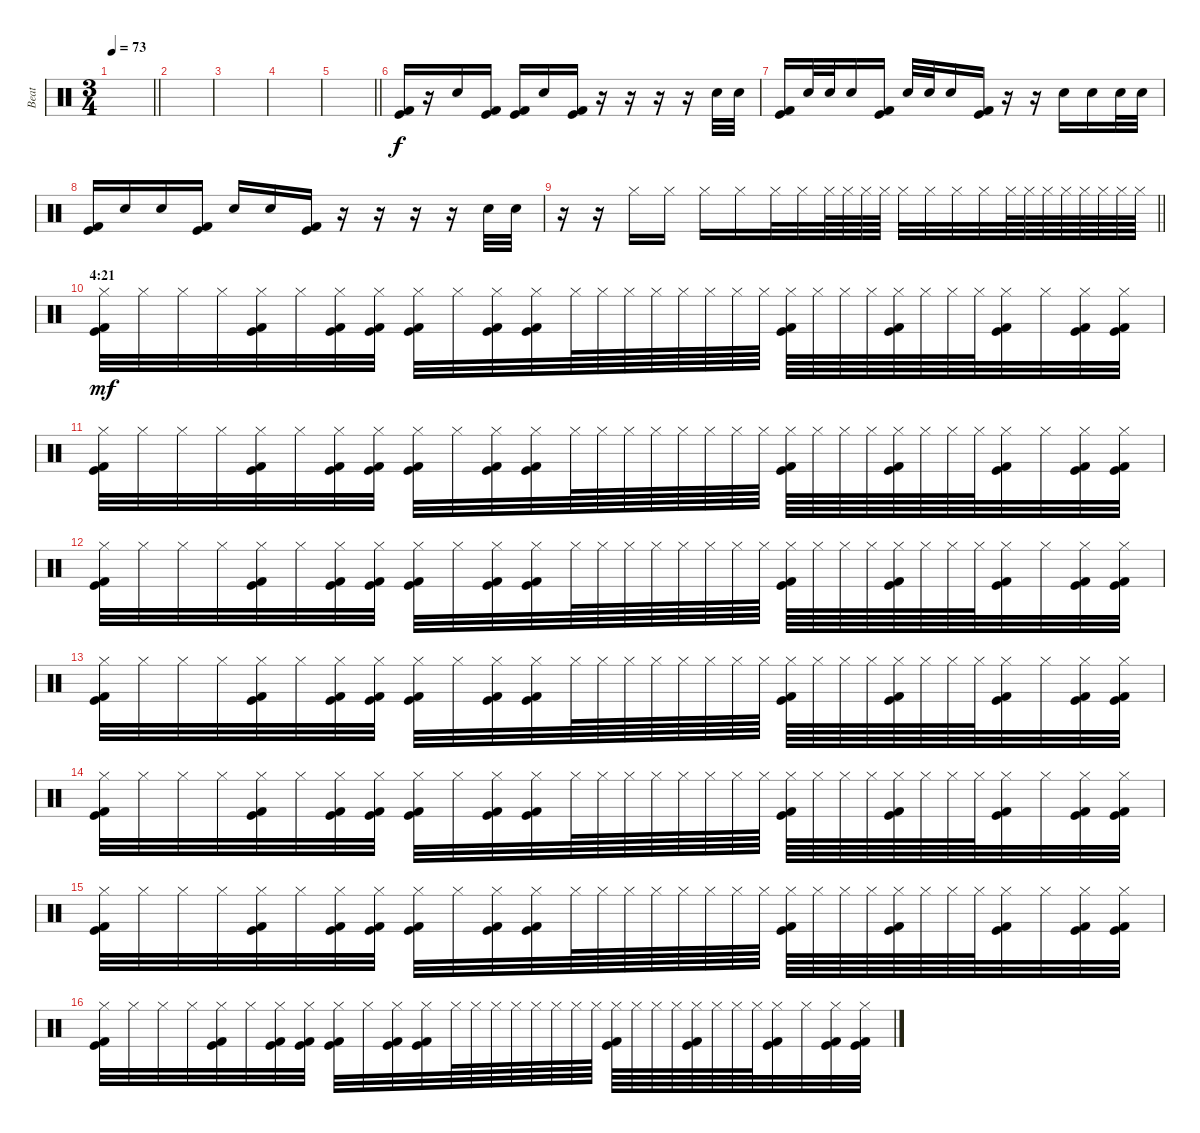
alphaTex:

\track ("Beat" "Beat") {instrument percussion}
\staff {score}
\articulation defaults
\ts (3 4)
\tempo 73
\clef neutral
\barLineRight lightlight
\ks c
|
|
|
|
\barLineRight lightlight
|
("Kick (hit) 2" "Kick (hit)").16 r.16 "Snare (hit) 2".16 ("Kick (hit) 2" "Kick (hit)").16 ("Kick (hit) 2" "Kick (hit)").16 "Snare (hit) 2".16 ("Kick (hit) 2" "Kick (hit)").16 r.16 r.16 r.16 r.16 "Snare (hit) 2".32 "Snare (hit) 2".32 |
("Kick (hit) 2" "Kick (hit)").16 "Snare (hit) 2".32 "Snare (hit) 2".32 "Snare (hit) 2".16 ("Kick (hit) 2" "Kick (hit)").16 "Snare (hit) 2".32 "Snare (hit) 2".32 "Snare (hit) 2".16 ("Kick (hit) 2" "Kick (hit)").16 r.16 r.16 "Snare (hit) 2".16 "Snare (hit) 2".16 "Snare (hit) 2".32 "Snare (hit) 2".32 |
("Kick (hit) 2" "Kick (hit)").16 "Snare (hit) 2".16 "Snare (hit) 2".16 ("Kick (hit) 2" "Kick (hit)").16 "Snare (hit) 2".16 "Snare (hit) 2".16 ("Kick (hit) 2" "Kick (hit)").16 r.16 r.16 r.16 r.16 "Snare (hit) 2".32 "Snare (hit) 2".32 |
\barLineRight lightlight
r.16 r.16 "Hi-Hat (closed)".16 "Hi-Hat (closed)".16 "Hi-Hat (closed)".16 "Hi-Hat (closed)".16 "Hi-Hat (closed)".32 "Hi-Hat (closed)".32 "Hi-Hat (closed)".64 "Hi-Hat (closed)".64 "Hi-Hat (closed)".64 "Hi-Hat (closed)".64 "Hi-Hat (closed)".32 "Hi-Hat (closed)".32 "Hi-Hat (closed)".32 "Hi-Hat (closed)".32 "Hi-Hat (closed)".64 "Hi-Hat (closed)".64 "Hi-Hat (closed)".64 "Hi-Hat (closed)".64 "Hi-Hat (closed)".64 "Hi-Hat (closed)".64 "Hi-Hat (closed)".64 "Hi-Hat (closed)".64 |
\section ("" "4:21")
("Hi-Hat (closed)" "Kick (hit)" "Kick (hit) 2").32{dy mf} "Hi-Hat (closed)".32 "Hi-Hat (closed)".32 "Hi-Hat (closed)".32 ("Hi-Hat (closed)" "Kick (hit)" "Kick (hit) 2").32 "Hi-Hat (closed)".32 ("Hi-Hat (closed)" "Kick (hit)" "Kick (hit) 2").32 ("Hi-Hat (closed)" "Kick (hit)" "Kick (hit) 2").32 ("Hi-Hat (closed)" "Kick (hit)" "Kick (hit) 2").32 "Hi-Hat (closed)".32 ("Hi-Hat (closed)" "Kick (hit)" "Kick (hit) 2").32 ("Hi-Hat (closed)" "Kick (hit)" "Kick (hit) 2").32 "Hi-Hat (closed)".64 "Hi-Hat (closed)".64 "Hi-Hat (closed)".64 "Hi-Hat (closed)".64 "Hi-Hat (closed)".64 "Hi-Hat (closed)".64 "Hi-Hat (closed)".64 "Hi-Hat (closed)".64 ("Hi-Hat (closed)" "Kick (hit)" "Kick (hit) 2").64 "Hi-Hat (closed)".64 "Hi-Hat (closed)".64 "Hi-Hat (closed)".64 ("Hi-Hat (closed)" "Kick (hit)" "Kick (hit) 2").64 "Hi-Hat (closed)".64 "Hi-Hat (closed)".64 "Hi-Hat (closed)".64 ("Hi-Hat (closed)" "Kick (hit)" "Kick (hit) 2").32 "Hi-Hat (closed)".32 ("Hi-Hat (closed)" "Kick (hit)" "Kick (hit) 2").32 ("Hi-Hat (closed)" "Kick (hit)" "Kick (hit) 2").32 |
("Hi-Hat (closed)" "Kick (hit)" "Kick (hit) 2").32 "Hi-Hat (closed)".32 "Hi-Hat (closed)".32 "Hi-Hat (closed)".32 ("Hi-Hat (closed)" "Kick (hit)" "Kick (hit) 2").32 "Hi-Hat (closed)".32 ("Hi-Hat (closed)" "Kick (hit)" "Kick (hit) 2").32 ("Hi-Hat (closed)" "Kick (hit)" "Kick (hit) 2").32 ("Hi-Hat (closed)" "Kick (hit)" "Kick (hit) 2").32 "Hi-Hat (closed)".32 ("Hi-Hat (closed)" "Kick (hit)" "Kick (hit) 2").32 ("Hi-Hat (closed)" "Kick (hit)" "Kick (hit) 2").32 "Hi-Hat (closed)".64 "Hi-Hat (closed)".64 "Hi-Hat (closed)".64 "Hi-Hat (closed)".64 "Hi-Hat (closed)".64 "Hi-Hat (closed)".64 "Hi-Hat (closed)".64 "Hi-Hat (closed)".64 ("Hi-Hat (closed)" "Kick (hit)" "Kick (hit) 2").64 "Hi-Hat (closed)".64 "Hi-Hat (closed)".64 "Hi-Hat (closed)".64 ("Hi-Hat (closed)" "Kick (hit)" "Kick (hit) 2").64 "Hi-Hat (closed)".64 "Hi-Hat (closed)".64 "Hi-Hat (closed)".64 ("Hi-Hat (closed)" "Kick (hit)" "Kick (hit) 2").32 "Hi-Hat (closed)".32 ("Hi-Hat (closed)" "Kick (hit)" "Kick (hit) 2").32 ("Hi-Hat (closed)" "Kick (hit)" "Kick (hit) 2").32 |
("Hi-Hat (closed)" "Kick (hit)" "Kick (hit) 2").32 "Hi-Hat (closed)".32 "Hi-Hat (closed)".32 "Hi-Hat (closed)".32 ("Hi-Hat (closed)" "Kick (hit)" "Kick (hit) 2").32 "Hi-Hat (closed)".32 ("Hi-Hat (closed)" "Kick (hit)" "Kick (hit) 2").32 ("Hi-Hat (closed)" "Kick (hit)" "Kick (hit) 2").32 ("Hi-Hat (closed)" "Kick (hit)" "Kick (hit) 2").32 "Hi-Hat (closed)".32 ("Hi-Hat (closed)" "Kick (hit)" "Kick (hit) 2").32 ("Hi-Hat (closed)" "Kick (hit)" "Kick (hit) 2").32 "Hi-Hat (closed)".64 "Hi-Hat (closed)".64 "Hi-Hat (closed)".64 "Hi-Hat (closed)".64 "Hi-Hat (closed)".64 "Hi-Hat (closed)".64 "Hi-Hat (closed)".64 "Hi-Hat (closed)".64 ("Hi-Hat (closed)" "Kick (hit)" "Kick (hit) 2").64 "Hi-Hat (closed)".64 "Hi-Hat (closed)".64 "Hi-Hat (closed)".64 ("Hi-Hat (closed)" "Kick (hit)" "Kick (hit) 2").64 "Hi-Hat (closed)".64 "Hi-Hat (closed)".64 "Hi-Hat (closed)".64 ("Hi-Hat (closed)" "Kick (hit)" "Kick (hit) 2").32 "Hi-Hat (closed)".32 ("Hi-Hat (closed)" "Kick (hit)" "Kick (hit) 2").32 ("Hi-Hat (closed)" "Kick (hit)" "Kick (hit) 2").32 |
("Hi-Hat (closed)" "Kick (hit)" "Kick (hit) 2").32 "Hi-Hat (closed)".32 "Hi-Hat (closed)".32 "Hi-Hat (closed)".32 ("Hi-Hat (closed)" "Kick (hit)" "Kick (hit) 2").32 "Hi-Hat (closed)".32 ("Hi-Hat (closed)" "Kick (hit)" "Kick (hit) 2").32 ("Hi-Hat (closed)" "Kick (hit)" "Kick (hit) 2").32 ("Hi-Hat (closed)" "Kick (hit)" "Kick (hit) 2").32 "Hi-Hat (closed)".32 ("Hi-Hat (closed)" "Kick (hit)" "Kick (hit) 2").32 ("Hi-Hat (closed)" "Kick (hit)" "Kick (hit) 2").32 "Hi-Hat (closed)".64 "Hi-Hat (closed)".64 "Hi-Hat (closed)".64 "Hi-Hat (closed)".64 "Hi-Hat (closed)".64 "Hi-Hat (closed)".64 "Hi-Hat (closed)".64 "Hi-Hat (closed)".64 ("Hi-Hat (closed)" "Kick (hit)" "Kick (hit) 2").64 "Hi-Hat (closed)".64 "Hi-Hat (closed)".64 "Hi-Hat (closed)".64 ("Hi-Hat (closed)" "Kick (hit)" "Kick (hit) 2").64 "Hi-Hat (closed)".64 "Hi-Hat (closed)".64 "Hi-Hat (closed)".64 ("Hi-Hat (closed)" "Kick (hit)" "Kick (hit) 2").32 "Hi-Hat (closed)".32 ("Hi-Hat (closed)" "Kick (hit)" "Kick (hit) 2").32 ("Hi-Hat (closed)" "Kick (hit)" "Kick (hit) 2").32 |
("Hi-Hat (closed)" "Kick (hit)" "Kick (hit) 2").32 "Hi-Hat (closed)".32 "Hi-Hat (closed)".32 "Hi-Hat (closed)".32 ("Hi-Hat (closed)" "Kick (hit)" "Kick (hit) 2").32 "Hi-Hat (closed)".32 ("Hi-Hat (closed)" "Kick (hit)" "Kick (hit) 2").32 ("Hi-Hat (closed)" "Kick (hit)" "Kick (hit) 2").32 ("Hi-Hat (closed)" "Kick (hit)" "Kick (hit) 2").32 "Hi-Hat (closed)".32 ("Hi-Hat (closed)" "Kick (hit)" "Kick (hit) 2").32 ("Hi-Hat (closed)" "Kick (hit)" "Kick (hit) 2").32 "Hi-Hat (closed)".64 "Hi-Hat (closed)".64 "Hi-Hat (closed)".64 "Hi-Hat (closed)".64 "Hi-Hat (closed)".64 "Hi-Hat (closed)".64 "Hi-Hat (closed)".64 "Hi-Hat (closed)".64 ("Hi-Hat (closed)" "Kick (hit)" "Kick (hit) 2").64 "Hi-Hat (closed)".64 "Hi-Hat (closed)".64 "Hi-Hat (closed)".64 ("Hi-Hat (closed)" "Kick (hit)" "Kick (hit) 2").64 "Hi-Hat (closed)".64 "Hi-Hat (closed)".64 "Hi-Hat (closed)".64 ("Hi-Hat (closed)" "Kick (hit)" "Kick (hit) 2").32 "Hi-Hat (closed)".32 ("Hi-Hat (closed)" "Kick (hit)" "Kick (hit) 2").32 ("Hi-Hat (closed)" "Kick (hit)" "Kick (hit) 2").32 |
("Hi-Hat (closed)" "Kick (hit)" "Kick (hit) 2").32 "Hi-Hat (closed)".32 "Hi-Hat (closed)".32 "Hi-Hat (closed)".32 ("Hi-Hat (closed)" "Kick (hit)" "Kick (hit) 2").32 "Hi-Hat (closed)".32 ("Hi-Hat (closed)" "Kick (hit)" "Kick (hit) 2").32 ("Hi-Hat (closed)" "Kick (hit)" "Kick (hit) 2").32 ("Hi-Hat (closed)" "Kick (hit)" "Kick (hit) 2").32 "Hi-Hat (closed)".32 ("Hi-Hat (closed)" "Kick (hit)" "Kick (hit) 2").32 ("Hi-Hat (closed)" "Kick (hit)" "Kick (hit) 2").32 "Hi-Hat (closed)".64 "Hi-Hat (closed)".64 "Hi-Hat (closed)".64 "Hi-Hat (closed)".64 "Hi-Hat (closed)".64 "Hi-Hat (closed)".64 "Hi-Hat (closed)".64 "Hi-Hat (closed)".64 ("Hi-Hat (closed)" "Kick (hit)" "Kick (hit) 2").64 "Hi-Hat (closed)".64 "Hi-Hat (closed)".64 "Hi-Hat (closed)".64 ("Hi-Hat (closed)" "Kick (hit)" "Kick (hit) 2").64 "Hi-Hat (closed)".64 "Hi-Hat (closed)".64 "Hi-Hat (closed)".64 ("Hi-Hat (closed)" "Kick (hit)" "Kick (hit) 2").32 "Hi-Hat (closed)".32 ("Hi-Hat (closed)" "Kick (hit)" "Kick (hit) 2").32 ("Hi-Hat (closed)" "Kick (hit)" "Kick (hit) 2").32 |
("Hi-Hat (closed)" "Kick (hit)" "Kick (hit) 2").32 "Hi-Hat (closed)".32 "Hi-Hat (closed)".32 "Hi-Hat (closed)".32 ("Hi-Hat (closed)" "Kick (hit)" "Kick (hit) 2").32 "Hi-Hat (closed)".32 ("Hi-Hat (closed)" "Kick (hit)" "Kick (hit) 2").32 ("Hi-Hat (closed)" "Kick (hit)" "Kick (hit) 2").32 ("Hi-Hat (closed)" "Kick (hit)" "Kick (hit) 2").32 "Hi-Hat (closed)".32 ("Hi-Hat (closed)" "Kick (hit)" "Kick (hit) 2").32 ("Hi-Hat (closed)" "Kick (hit)" "Kick (hit) 2").32 "Hi-Hat (closed)".64 "Hi-Hat (closed)".64 "Hi-Hat (closed)".64 "Hi-Hat (closed)".64 "Hi-Hat (closed)".64 "Hi-Hat (closed)".64 "Hi-Hat (closed)".64 "Hi-Hat (closed)".64 ("Hi-Hat (closed)" "Kick (hit)" "Kick (hit) 2").64 "Hi-Hat (closed)".64 "Hi-Hat (closed)".64 "Hi-Hat (closed)".64 ("Hi-Hat (closed)" "Kick (hit)" "Kick (hit) 2").64 "Hi-Hat (closed)".64 "Hi-Hat (closed)".64 "Hi-Hat (closed)".64 ("Hi-Hat (closed)" "Kick (hit)" "Kick (hit) 2").32 "Hi-Hat (closed)".32 ("Hi-Hat (closed)" "Kick (hit)" "Kick (hit) 2").32 ("Hi-Hat (closed)" "Kick (hit)" "Kick (hit) 2").32
